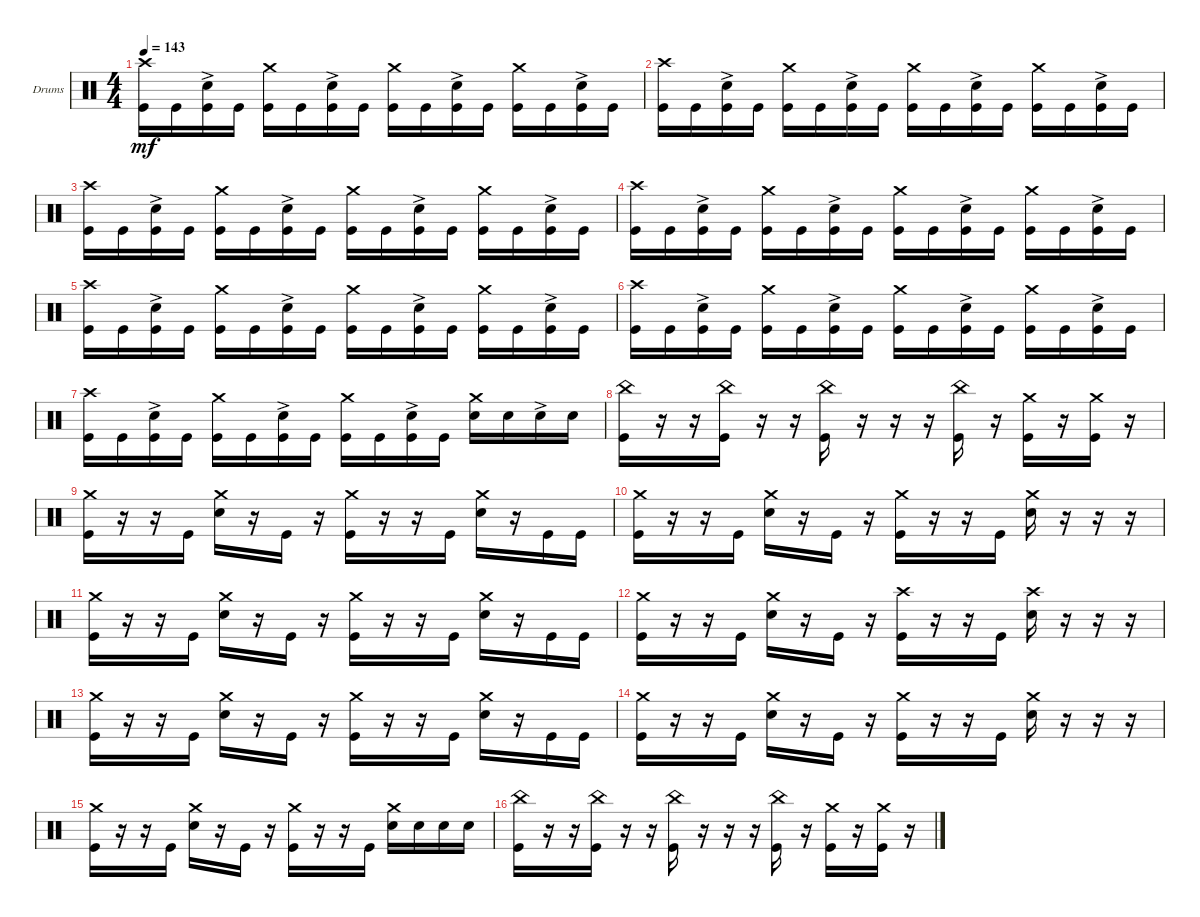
\defaultSystemsLayout 4
\bracketExtendMode groupsimilarinstruments
\firstSystemTrackNameOrientation horizontal
\otherSystemsTrackNameOrientation horizontal
\track ("Drumkit" "Drums") {instrument percussion}
\staff {score}
\articulation defaults
\ts (4 4)
\tempo 143
\clef neutral
\scale
0.333333
\ks c
("Kick (hit)" "Crash high (hit)").16{dy mf} "Kick (hit)".16 ("Kick (hit)" "Snare (hit) 2"{ac}).16 "Kick (hit)".16 ("Kick (hit)" "Crash medium (hit)").16 "Kick (hit)".16 ("Kick (hit)" "Snare (hit) 2"{ac}).16 "Kick (hit)".16 ("Kick (hit)" "Crash medium (hit)").16 "Kick (hit)".16 ("Kick (hit)" "Snare (hit) 2"{ac}).16 "Kick (hit)".16 ("Kick (hit)" "Crash medium (hit)").16 "Kick (hit)".16 ("Kick (hit)" "Snare (hit) 2"{ac}).16 "Kick (hit)".16 |
\scale
0.333333 ("Kick (hit)" "Crash high (hit)").16 "Kick (hit)".16 ("Kick (hit)" "Snare (hit) 2"{ac}).16 "Kick (hit)".16 ("Kick (hit)" "Crash medium (hit)").16 "Kick (hit)".16 ("Kick (hit)" "Snare (hit) 2"{ac}).16 "Kick (hit)".16 ("Kick (hit)" "Crash medium (hit)").16 "Kick (hit)".16 ("Kick (hit)" "Snare (hit) 2"{ac}).16 "Kick (hit)".16 ("Kick (hit)" "Crash medium (hit)").16 "Kick (hit)".16 ("Kick (hit)" "Snare (hit) 2"{ac}).16 "Kick (hit)".16 |
\scale
0.333333 ("Kick (hit)" "Crash high (hit)").16 "Kick (hit)".16 ("Kick (hit)" "Snare (hit) 2"{ac}).16 "Kick (hit)".16 ("Kick (hit)" "Crash medium (hit)").16 "Kick (hit)".16 ("Kick (hit)" "Snare (hit) 2"{ac}).16 "Kick (hit)".16 ("Kick (hit)" "Crash medium (hit)").16 "Kick (hit)".16 ("Kick (hit)" "Snare (hit) 2"{ac}).16 "Kick (hit)".16 ("Kick (hit)" "Crash medium (hit)").16 "Kick (hit)".16 ("Kick (hit)" "Snare (hit) 2"{ac}).16 "Kick (hit)".16 |
\scale
0.333333 ("Kick (hit)" "Crash high (hit)").16 "Kick (hit)".16 ("Kick (hit)" "Snare (hit) 2"{ac}).16 "Kick (hit)".16 ("Kick (hit)" "Crash medium (hit)").16 "Kick (hit)".16 ("Kick (hit)" "Snare (hit) 2"{ac}).16 "Kick (hit)".16 ("Kick (hit)" "Crash medium (hit)").16 "Kick (hit)".16 ("Kick (hit)" "Snare (hit) 2"{ac}).16 "Kick (hit)".16 ("Kick (hit)" "Crash medium (hit)").16 "Kick (hit)".16 ("Kick (hit)" "Snare (hit) 2"{ac}).16 "Kick (hit)".16 |
\scale
0.333333 ("Kick (hit)" "Crash high (hit)").16 "Kick (hit)".16 ("Kick (hit)" "Snare (hit) 2"{ac}).16 "Kick (hit)".16 ("Kick (hit)" "Crash medium (hit)").16 "Kick (hit)".16 ("Kick (hit)" "Snare (hit) 2"{ac}).16 "Kick (hit)".16 ("Kick (hit)" "Crash medium (hit)").16 "Kick (hit)".16 ("Kick (hit)" "Snare (hit) 2"{ac}).16 "Kick (hit)".16 ("Kick (hit)" "Crash medium (hit)").16 "Kick (hit)".16 ("Kick (hit)" "Snare (hit) 2"{ac}).16 "Kick (hit)".16 |
\scale
0.333333 ("Kick (hit)" "Crash high (hit)").16 "Kick (hit)".16 ("Kick (hit)" "Snare (hit) 2"{ac}).16 "Kick (hit)".16 ("Kick (hit)" "Crash medium (hit)").16 "Kick (hit)".16 ("Kick (hit)" "Snare (hit) 2"{ac}).16 "Kick (hit)".16 ("Kick (hit)" "Crash medium (hit)").16 "Kick (hit)".16 ("Kick (hit)" "Snare (hit) 2"{ac}).16 "Kick (hit)".16 ("Kick (hit)" "Crash medium (hit)").16 "Kick (hit)".16 ("Kick (hit)" "Snare (hit) 2"{ac}).16 "Kick (hit)".16 |
\scale
0.333333 ("Kick (hit)" "Crash high (hit)").16 "Kick (hit)".16 ("Kick (hit)" "Snare (hit) 2"{ac}).16 "Kick (hit)".16 ("Kick (hit)" "Crash medium (hit)").16 "Kick (hit)".16 ("Kick (hit)" "Snare (hit) 2"{ac}).16 "Kick (hit)".16 ("Kick (hit)" "Crash medium (hit)").16 "Kick (hit)".16 ("Kick (hit)" "Snare (hit) 2"{ac}).16 "Kick (hit)".16 ("Crash medium (hit)" "Snare (hit) 2").16 "Snare (hit) 2".16 "Snare (hit) 2"{ac}.16 "Snare (hit) 2".16 |
\scale
0.333333 ("Kick (hit)" "China (hit)").16 r.16 r.16 ("Kick (hit)" "China (hit)").16 r.16 r.16 ("Kick (hit)" "China (hit)").16 r.16 r.16 r.16 ("Kick (hit)" "China (hit)").16 r.16 ("Kick (hit)" "Crash medium (hit)").16 r.16 ("Kick (hit)" "Crash medium (hit)").16 r.16 |
\scale
0.333333 ("Kick (hit)" "Crash medium (hit)").16 r.16 r.16 "Kick (hit)".16 ("Snare (hit) 2" "Crash medium (hit)").16 r.16 "Kick (hit)".16 r.16 ("Kick (hit)" "Crash medium (hit)").16 r.16 r.16 "Kick (hit)".16 ("Snare (hit) 2" "Crash medium (hit)").16 r.16 "Kick (hit)".16 "Kick (hit)".16 |
\scale
0.333333 ("Kick (hit)" "Crash medium (hit)").16 r.16 r.16 "Kick (hit)".16 ("Snare (hit) 2" "Crash medium (hit)").16 r.16 "Kick (hit)".16 r.16 ("Kick (hit)" "Crash medium (hit)").16 r.16 r.16 "Kick (hit)".16 ("Snare (hit) 2" "Crash medium (hit)").16 r.16 r.16 r.16 |
\scale
0.333333 ("Kick (hit)" "Crash medium (hit)").16 r.16 r.16 "Kick (hit)".16 ("Snare (hit) 2" "Crash medium (hit)").16 r.16 "Kick (hit)".16 r.16 ("Kick (hit)" "Crash medium (hit)").16 r.16 r.16 "Kick (hit)".16 ("Snare (hit) 2" "Crash medium (hit)").16 r.16 "Kick (hit)".16 "Kick (hit)".16 |
\scale
0.333333 ("Kick (hit)" "Crash medium (hit)").16 r.16 r.16 "Kick (hit)".16 ("Snare (hit) 2" "Crash medium (hit)").16 r.16 "Kick (hit)".16 r.16 ("Kick (hit)" "Crash high (hit)").16 r.16 r.16 "Kick (hit)".16 ("Snare (hit) 2" "Crash high (hit)").16 r.16 r.16 r.16 |
\scale
0.333333 ("Kick (hit)" "Crash medium (hit)").16 r.16 r.16 "Kick (hit)".16 ("Snare (hit) 2" "Crash medium (hit)").16 r.16 "Kick (hit)".16 r.16 ("Kick (hit)" "Crash medium (hit)").16 r.16 r.16 "Kick (hit)".16 ("Snare (hit) 2" "Crash medium (hit)").16 r.16 "Kick (hit)".16 "Kick (hit)".16 |
\scale
0.333333 ("Kick (hit)" "Crash medium (hit)").16 r.16 r.16 "Kick (hit)".16 ("Snare (hit) 2" "Crash medium (hit)").16 r.16 "Kick (hit)".16 r.16 ("Kick (hit)" "Crash medium (hit)").16 r.16 r.16 "Kick (hit)".16 ("Snare (hit) 2" "Crash medium (hit)").16 r.16 r.16 r.16 |
\scale
0.333333 ("Kick (hit)" "Crash medium (hit)").16 r.16 r.16 "Kick (hit)".16 ("Snare (hit) 2" "Crash medium (hit)").16 r.16 "Kick (hit)".16 r.16 ("Kick (hit)" "Crash medium (hit)").16 r.16 r.16 "Kick (hit)".16 ("Snare (hit) 2" "Crash medium (hit)").16 "Snare (hit) 2".16 "Snare (hit) 2".16 "Snare (hit) 2".16 |
\scale
0.333333 ("Kick (hit)" "China (hit)").16 r.16 r.16 ("Kick (hit)" "China (hit)").16 r.16 r.16 ("Kick (hit)" "China (hit)").16 r.16 r.16 r.16 ("Kick (hit)" "China (hit)").16 r.16 ("Kick (hit)" "Crash medium (hit)").16 r.16 ("Kick (hit)" "Crash medium (hit)").16 r.16
